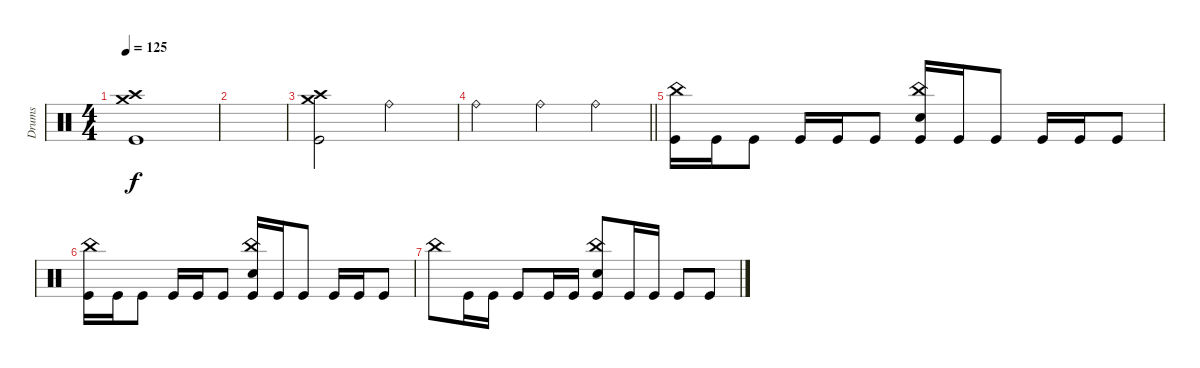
\track ("Drums" "Drums") {instrument percussion}
\staff
\articulation defaults
\ts (4 4)
\tempo 125
\clef neutral
\ks c
("Crash high (hit)" "Crash medium (hit)" "Kick (hit)").1{dy f} |
|
("Crash high (hit)" "Crash medium (hit)" "Kick (hit)").2 "Ride (bell)".2 |
\barLineRight lightlight "Ride (bell)".2 "Ride (bell)".4 "Ride (bell)".4
|
\section ("" "")
("China (hit)" "Kick (hit)").16 "Kick (hit)".16 "Kick (hit)".8 "Kick (hit)".16 "Kick (hit)".16 "Kick (hit)".8 ("China (hit)" "Electric Snare (hit)" "Kick (hit)").16 "Kick (hit)".16 "Kick (hit)".8 "Kick (hit)".16 "Kick (hit)".16 "Kick (hit)".8 |
("China (hit)" "Kick (hit)").16 "Kick (hit)".16 "Kick (hit)".8 "Kick (hit)".16 "Kick (hit)".16 "Kick (hit)".8 ("China (hit)" "Electric Snare (hit)" "Kick (hit)").16 "Kick (hit)".16 "Kick (hit)".8 "Kick (hit)".16 "Kick (hit)".16 "Kick (hit)".8 |
"China (hit)".8 "Kick (hit)".16 "Kick (hit)".16 "Kick (hit)".8 "Kick (hit)".16 "Kick (hit)".16 ("China (hit)" "Electric Snare (hit)" "Kick (hit)").8 "Kick (hit)".16 "Kick (hit)".16 "Kick (hit)".8 "Kick (hit)".8
